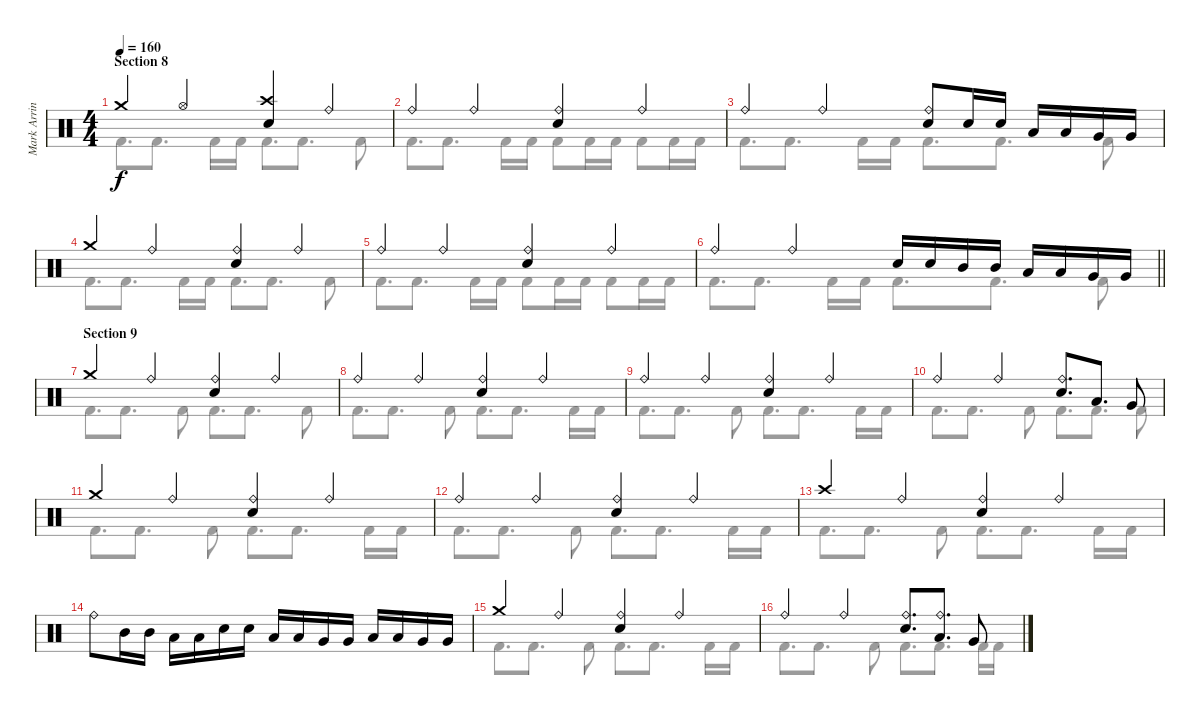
\track ("Mark Arrington – drums" "Mark Arrin") {instrument percussion}
\staff {score}
\articulation defaults
\voice
\ts (4 4)
\section ("" "Section 8")
\tempo 160
\clef neutral
\ks c "Crash medium (hit)".4{dy f} "Hi-Hat (open)".4
("Crash high (hit)" "Electric Snare (hit)").4 "Ride (bell)".4 |
"Ride (bell)".4 "Ride (bell)".4 ("Ride (bell)" "Electric Snare (hit)").4 "Ride (bell)".4 |
"Ride (bell)".4 "Ride (bell)".4 ("Ride (bell)" "Electric Snare (hit)").8 "Electric Snare (hit)".16 "Electric Snare (hit)".16 "Low Tom (hit)".16 "Low Tom (hit)".16 "Very Low Tom (hit)".16 "Very Low Tom (hit)".16 |
"Crash medium (hit)".4 "Ride (bell)".4 ("Ride (bell)" "Electric Snare (hit)").4 "Ride (bell)".4 |
"Ride (bell)".4 "Ride (bell)".4 ("Ride (bell)" "Electric Snare (hit)").4 "Ride (bell)".4 |
\barLineRight lightlight "Ride (bell)".4 "Ride (bell)".4 "Electric Snare (hit)".16 "Electric Snare (hit)".16 "Mid Tom (hit)".16 "Mid Tom (hit)".16 "Low Tom (hit)".16 "Low Tom (hit)".16 "Very Low Tom (hit)".16 "Very Low Tom (hit)".16
|
\section ("" "Section 9")
"Crash medium (hit)".4 "Ride (bell)".4 ("Ride (bell)" "Electric Snare (hit)").4 "Ride (bell)".4 |
"Ride (bell)".4 "Ride (bell)".4 ("Ride (bell)" "Electric Snare (hit)").4 "Ride (bell)".4 |
"Ride (bell)".4 "Ride (bell)".4 ("Ride (bell)" "Electric Snare (hit)").4 "Ride (bell)".4 |
"Ride (bell)".4 "Ride (bell)".4 ("Ride (bell)" "Electric Snare (hit)").8{d} "Low Tom (hit)".8{d} "Very Low Tom (hit)".8 |
"Crash medium (hit)".4 "Ride (bell)".4 ("Ride (bell)" "Electric Snare (hit)").4 "Ride (bell)".4 |
"Ride (bell)".4 "Ride (bell)".4 ("Ride (bell)" "Electric Snare (hit)").4 "Ride (bell)".4 |
"Crash high (hit)".4 "Ride (bell)".4 ("Ride (bell)" "Electric Snare (hit)").4 "Ride (bell)".4 |
"Ride (bell)".8 "Mid Tom (hit)".16 "Mid Tom (hit)".16 "Low Tom (hit)".16 "Low Tom (hit)".16 "Electric Snare (hit)".16 "Electric Snare (hit)".16 "Low Tom (hit)".16 "Low Tom (hit)".16 "Very Low Tom (hit)".16 "Very Low Tom (hit)".16 "Low Tom (hit)".16 "Low Tom (hit)".16 "Very Low Tom (hit)".16 "Very Low Tom (hit)".16 |
"Crash medium (hit)".4 "Ride (bell)".4 ("Ride (bell)" "Electric Snare (hit)").4 "Ride (bell)".4 |
"Ride (bell)".4 "Ride (bell)".4 ("Ride (bell)" "Electric Snare (hit)").8{d} ("Ride (bell)" "Low Tom (hit)").8{d} "Very Low Tom (hit)".8
\voice
\clef neutral
\ottava regular
\simile none
\ks c "Kick (hit) 2".8{d dy f} "Kick (hit) 2".8{d} "Kick (hit) 2".16 "Kick (hit) 2".16 "Kick (hit) 2".8{d} "Kick (hit) 2".8{d} "Kick (hit) 2".8
|
"Kick (hit) 2".8{d} "Kick (hit) 2".8{d} "Kick (hit) 2".16 "Kick (hit) 2".16 "Kick (hit) 2".8 "Kick (hit) 2".16 "Kick (hit) 2".16 "Kick (hit) 2".8 "Kick (hit) 2".16 "Kick (hit) 2".16 |
"Kick (hit) 2".8{d} "Kick (hit) 2".8{d} "Kick (hit) 2".16 "Kick (hit) 2".16 "Kick (hit) 2".8{d} "Kick (hit) 2".8{d} "Kick (hit) 2".8 |
"Kick (hit) 2".8{d} "Kick (hit) 2".8{d} "Kick (hit) 2".16 "Kick (hit) 2".16 "Kick (hit) 2".8{d} "Kick (hit) 2".8{d} "Kick (hit) 2".8 |
"Kick (hit) 2".8{d} "Kick (hit) 2".8{d} "Kick (hit) 2".16 "Kick (hit) 2".16 "Kick (hit) 2".8 "Kick (hit) 2".16 "Kick (hit) 2".16 "Kick (hit) 2".8 "Kick (hit) 2".16 "Kick (hit) 2".16 |
\barLineRight lightlight "Kick (hit) 2".8{d} "Kick (hit) 2".8{d} "Kick (hit) 2".16 "Kick (hit) 2".16 "Kick (hit) 2".8{d} "Kick (hit) 2".8{d} "Kick (hit) 2".8
|
"Kick (hit) 2".8{d} "Kick (hit) 2".8{d} "Kick (hit) 2".8 "Kick (hit) 2".8{d} "Kick (hit) 2".8{d} "Kick (hit) 2".8 |
"Kick (hit) 2".8{d} "Kick (hit) 2".8{d} "Kick (hit) 2".8 "Kick (hit) 2".8{d} "Kick (hit) 2".8{d} "Kick (hit) 2".16 "Kick (hit) 2".16 |
"Kick (hit) 2".8{d} "Kick (hit) 2".8{d} "Kick (hit) 2".8 "Kick (hit) 2".8{d} "Kick (hit) 2".8{d} "Kick (hit) 2".16 "Kick (hit) 2".16 |
"Kick (hit) 2".8{d} "Kick (hit) 2".8{d} "Kick (hit) 2".8 "Kick (hit) 2".8{d} "Kick (hit) 2".8{d} "Kick (hit) 2".8 |
"Kick (hit) 2".8{d} "Kick (hit) 2".8{d} "Kick (hit) 2".8 "Kick (hit) 2".8{d} "Kick (hit) 2".8{d} "Kick (hit) 2".16 "Kick (hit) 2".16 |
"Kick (hit) 2".8{d} "Kick (hit) 2".8{d} "Kick (hit) 2".8 "Kick (hit) 2".8{d} "Kick (hit) 2".8{d} "Kick (hit) 2".16 "Kick (hit) 2".16 |
"Kick (hit) 2".8{d} "Kick (hit) 2".8{d} "Kick (hit) 2".8 "Kick (hit) 2".8{d} "Kick (hit) 2".8{d} "Kick (hit) 2".16 "Kick (hit) 2".16 |
|
"Kick (hit) 2".8{d} "Kick (hit) 2".8{d} "Kick (hit) 2".8 "Kick (hit) 2".8{d} "Kick (hit) 2".8{d} "Kick (hit) 2".16 "Kick (hit) 2".16 |
"Kick (hit) 2".8{d} "Kick (hit) 2".8{d} "Kick (hit) 2".8 "Kick (hit) 2".8{d} "Kick (hit) 2".8{d} "Kick (hit) 2".16 "Kick (hit) 2".16
